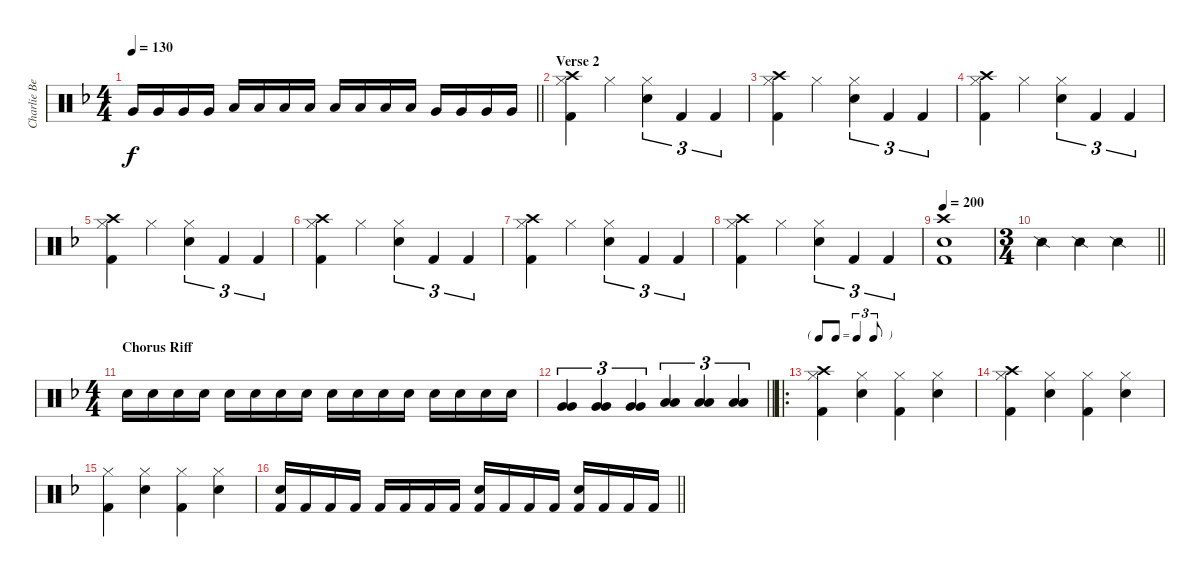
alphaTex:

\track ("Charlie Benante" "Charlie Be") {instrument percussion}
\staff {score}
\articulation defaults
\ts (4 4)
\tempo 130
\clef neutral
\barLineRight lightlight
\ks f "Very Low Tom (hit)".16{dy f} "Very Low Tom (hit)".16 "Very Low Tom (hit)".16 "Very Low Tom (hit)".16 "Low Floor Tom (hit)".16 "Low Floor Tom (hit)".16 "Low Floor Tom (hit)".16 "Low Floor Tom (hit)".16 "Low Tom (hit)".16 "Low Tom (hit)".16 "Low Tom (hit)".16 "Low Tom (hit)".16 "Very Low Tom (hit)".16 "Very Low Tom (hit)".16 "Very Low Tom (hit)".16 "Very Low Tom (hit)".16
|
\section ("" "Verse 2")
("Crash high (hit)" "Hi-Hat (closed)" "Kick (hit) 2").4 "Hi-Hat (closed)".4 ("Hi-Hat (closed)" "Electric Snare (hit)").4{tu (3 2)} "Kick (hit) 2".4{tu (3 2)} "Kick (hit) 2".4{tu (3 2)} |
("Crash high (hit)" "Hi-Hat (closed)" "Kick (hit) 2").4 "Hi-Hat (closed)".4 ("Hi-Hat (closed)" "Electric Snare (hit)").4{tu (3 2)} "Kick (hit) 2".4{tu (3 2)} "Kick (hit) 2".4{tu (3 2)} |
("Crash high (hit)" "Hi-Hat (closed)" "Kick (hit) 2").4 "Hi-Hat (closed)".4 ("Hi-Hat (closed)" "Electric Snare (hit)").4{tu (3 2)} "Kick (hit) 2".4{tu (3 2)} "Kick (hit) 2".4{tu (3 2)} |
("Crash high (hit)" "Hi-Hat (closed)" "Kick (hit) 2").4 "Hi-Hat (closed)".4 ("Hi-Hat (closed)" "Electric Snare (hit)").4{tu (3 2)} "Kick (hit) 2".4{tu (3 2)} "Kick (hit) 2".4{tu (3 2)} |
("Crash high (hit)" "Hi-Hat (closed)" "Kick (hit) 2").4 "Hi-Hat (closed)".4 ("Hi-Hat (closed)" "Electric Snare (hit)").4{tu (3 2)} "Kick (hit) 2".4{tu (3 2)} "Kick (hit) 2".4{tu (3 2)} |
("Crash high (hit)" "Hi-Hat (closed)" "Kick (hit) 2").4 "Hi-Hat (closed)".4 ("Hi-Hat (closed)" "Electric Snare (hit)").4{tu (3 2)} "Kick (hit) 2".4{tu (3 2)} "Kick (hit) 2".4{tu (3 2)} |
("Crash high (hit)" "Hi-Hat (closed)" "Kick (hit) 2").4 "Hi-Hat (closed)".4 ("Hi-Hat (closed)" "Electric Snare (hit)").4{tu (3 2)} "Kick (hit) 2".4{tu (3 2)} "Kick (hit) 2".4{tu (3 2)} |
\tempo 200
("Electric Snare (hit)" "Crash high (hit)" "Kick (hit) 2").1 |
\ts (3 4)
\barLineRight lightlight "Snare (side stick) 2".4 "Snare (side stick) 2".4 "Snare (side stick) 2".4
|
\ts (4 4)
\section ("" "Chorus Riff")
"Electric Snare (hit)".16 "Electric Snare (hit)".16 "Electric Snare (hit)".16 "Electric Snare (hit)".16 "Electric Snare (hit)".16 "Electric Snare (hit)".16 "Electric Snare (hit)".16 "Electric Snare (hit)".16 "Electric Snare (hit)".16 "Electric Snare (hit)".16 "Electric Snare (hit)".16 "Electric Snare (hit)".16 "Electric Snare (hit)".16 "Electric Snare (hit)".16 "Electric Snare (hit)".16 "Electric Snare (hit)".16 |
\barLineRight lightlight
("Very Low Tom (hit)" "Very Low Tom (hit)").4{tu (3 2)} ("Very Low Tom (hit)" "Very Low Tom (hit)").4{tu (3 2)} ("Very Low Tom (hit)" "Very Low Tom (hit)").4{tu (3 2)} ("Low Tom (hit)" "Low Tom (hit)").4{tu (3 2)} ("Low Tom (hit)" "Low Tom (hit)").4{tu (3 2)} ("Low Tom (hit)" "Low Tom (hit)").4{tu (3 2)} |
\ro
\tf triplet8th
("Crash high (hit)" "Hi-Hat (closed)" "Kick (hit) 2").4 ("Hi-Hat (closed)" "Electric Snare (hit)").4 ("Hi-Hat (closed)" "Kick (hit) 2").4 ("Hi-Hat (closed)" "Electric Snare (hit)").4 |
("Crash high (hit)" "Hi-Hat (closed)" "Kick (hit) 2").4 ("Hi-Hat (closed)" "Electric Snare (hit)").4 ("Hi-Hat (closed)" "Kick (hit) 2").4 ("Hi-Hat (closed)" "Electric Snare (hit)").4 |
("Hi-Hat (closed)" "Kick (hit) 2").4 ("Hi-Hat (closed)" "Electric Snare (hit)").4 ("Hi-Hat (closed)" "Kick (hit) 2").4 ("Hi-Hat (closed)" "Electric Snare (hit)").4 |
\barLineRight lightlight
("Electric Snare (hit)" "Kick (hit) 2").16 "Kick (hit) 2".16 "Kick (hit) 2".16 "Kick (hit) 2".16 "Kick (hit) 2".16 "Kick (hit) 2".16 "Kick (hit) 2".16 "Kick (hit) 2".16 ("Electric Snare (hit)" "Kick (hit) 2").16 "Kick (hit) 2".16 "Kick (hit) 2".16 "Kick (hit) 2".16 ("Electric Snare (hit)" "Kick (hit) 2").16 "Kick (hit) 2".16 "Kick (hit) 2".16 "Kick (hit) 2".16
